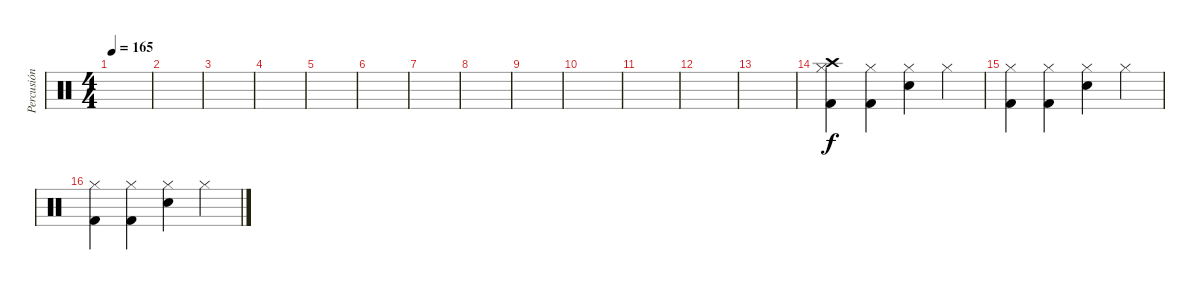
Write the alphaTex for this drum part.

\track ("Percusión" "Percusión") {instrument percussion}
\staff {score}
\articulation defaults
\ts (4 4)
\tempo 165
\clef neutral
\ks c
|
|
|
|
|
|
|
|
|
|
|
|
|
("Crash high (hit)" "Hi-Hat (closed)" "Kick (hit) 2").4 ("Hi-Hat (closed)" "Kick (hit) 2").4 ("Hi-Hat (closed)" "Electric Snare (hit)").4 "Hi-Hat (closed)".4 |
("Hi-Hat (closed)" "Kick (hit) 2").4 ("Hi-Hat (closed)" "Kick (hit) 2").4 ("Hi-Hat (closed)" "Electric Snare (hit)").4 "Hi-Hat (closed)".4 |
("Hi-Hat (closed)" "Kick (hit) 2").4 ("Hi-Hat (closed)" "Kick (hit) 2").4 ("Hi-Hat (closed)" "Electric Snare (hit)").4 "Hi-Hat (closed)".4
